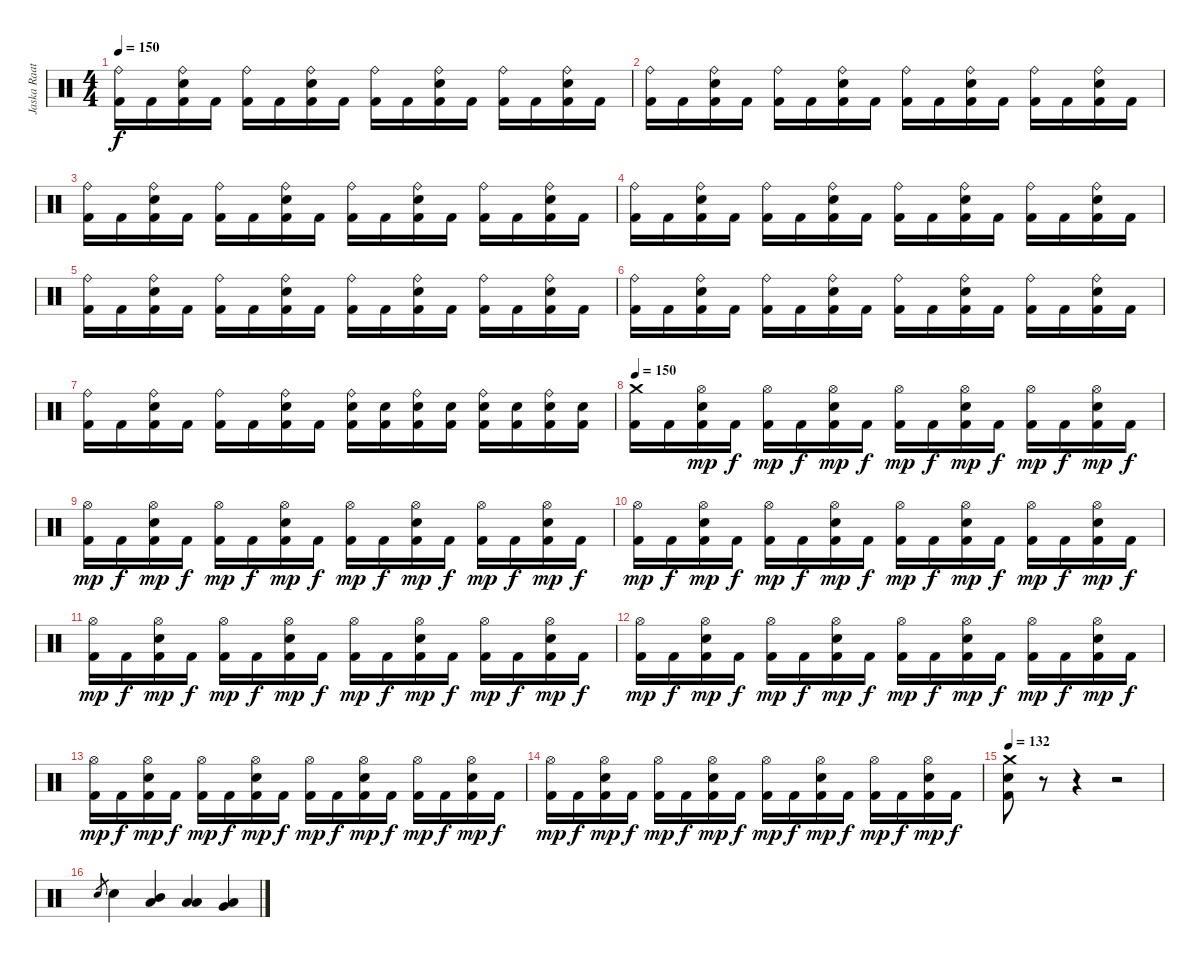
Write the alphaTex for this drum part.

\track ("Jaska Raatikainen" "Jaska Raat") {instrument percussion}
\staff {score}
\articulation defaults
\ts (4 4)
\tempo 150
\clef neutral
\ks c
("Ride (bell)" "Kick (hit) 2").16{dy f} "Kick (hit) 2".16 ("Ride (bell)" "Electric Snare (hit)" "Kick (hit) 2").16 "Kick (hit) 2".16 ("Ride (bell)" "Kick (hit) 2").16 "Kick (hit) 2".16 ("Ride (bell)" "Electric Snare (hit)" "Kick (hit) 2").16 "Kick (hit) 2".16 ("Ride (bell)" "Kick (hit) 2").16 "Kick (hit) 2".16 ("Ride (bell)" "Electric Snare (hit)" "Kick (hit) 2").16 "Kick (hit) 2".16 ("Ride (bell)" "Kick (hit) 2").16 "Kick (hit) 2".16 ("Ride (bell)" "Electric Snare (hit)" "Kick (hit) 2").16 "Kick (hit) 2".16 |
("Ride (bell)" "Kick (hit) 2").16 "Kick (hit) 2".16 ("Ride (bell)" "Electric Snare (hit)" "Kick (hit) 2").16 "Kick (hit) 2".16 ("Ride (bell)" "Kick (hit) 2").16 "Kick (hit) 2".16 ("Ride (bell)" "Electric Snare (hit)" "Kick (hit) 2").16 "Kick (hit) 2".16 ("Ride (bell)" "Kick (hit) 2").16 "Kick (hit) 2".16 ("Ride (bell)" "Electric Snare (hit)" "Kick (hit) 2").16 "Kick (hit) 2".16 ("Ride (bell)" "Kick (hit) 2").16 "Kick (hit) 2".16 ("Ride (bell)" "Electric Snare (hit)" "Kick (hit) 2").16 "Kick (hit) 2".16 |
("Ride (bell)" "Kick (hit) 2").16 "Kick (hit) 2".16 ("Ride (bell)" "Electric Snare (hit)" "Kick (hit) 2").16 "Kick (hit) 2".16 ("Ride (bell)" "Kick (hit) 2").16 "Kick (hit) 2".16 ("Ride (bell)" "Electric Snare (hit)" "Kick (hit) 2").16 "Kick (hit) 2".16 ("Ride (bell)" "Kick (hit) 2").16 "Kick (hit) 2".16 ("Ride (bell)" "Electric Snare (hit)" "Kick (hit) 2").16 "Kick (hit) 2".16 ("Ride (bell)" "Kick (hit) 2").16 "Kick (hit) 2".16 ("Ride (bell)" "Electric Snare (hit)" "Kick (hit) 2").16 "Kick (hit) 2".16 |
("Ride (bell)" "Kick (hit) 2").16 "Kick (hit) 2".16 ("Ride (bell)" "Electric Snare (hit)" "Kick (hit) 2").16 "Kick (hit) 2".16 ("Ride (bell)" "Kick (hit) 2").16 "Kick (hit) 2".16 ("Ride (bell)" "Electric Snare (hit)" "Kick (hit) 2").16 "Kick (hit) 2".16 ("Ride (bell)" "Kick (hit) 2").16 "Kick (hit) 2".16 ("Ride (bell)" "Electric Snare (hit)" "Kick (hit) 2").16 "Kick (hit) 2".16 ("Ride (bell)" "Kick (hit) 2").16 "Kick (hit) 2".16 ("Ride (bell)" "Electric Snare (hit)" "Kick (hit) 2").16 "Kick (hit) 2".16 |
("Ride (bell)" "Kick (hit) 2").16 "Kick (hit) 2".16 ("Ride (bell)" "Electric Snare (hit)" "Kick (hit) 2").16 "Kick (hit) 2".16 ("Ride (bell)" "Kick (hit) 2").16 "Kick (hit) 2".16 ("Ride (bell)" "Electric Snare (hit)" "Kick (hit) 2").16 "Kick (hit) 2".16 ("Ride (bell)" "Kick (hit) 2").16 "Kick (hit) 2".16 ("Ride (bell)" "Electric Snare (hit)" "Kick (hit) 2").16 "Kick (hit) 2".16 ("Ride (bell)" "Kick (hit) 2").16 "Kick (hit) 2".16 ("Ride (bell)" "Electric Snare (hit)" "Kick (hit) 2").16 "Kick (hit) 2".16 |
("Ride (bell)" "Kick (hit) 2").16 "Kick (hit) 2".16 ("Ride (bell)" "Electric Snare (hit)" "Kick (hit) 2").16 "Kick (hit) 2".16 ("Ride (bell)" "Kick (hit) 2").16 "Kick (hit) 2".16 ("Ride (bell)" "Electric Snare (hit)" "Kick (hit) 2").16 "Kick (hit) 2".16 ("Ride (bell)" "Kick (hit) 2").16 "Kick (hit) 2".16 ("Ride (bell)" "Electric Snare (hit)" "Kick (hit) 2").16 "Kick (hit) 2".16 ("Ride (bell)" "Kick (hit) 2").16 "Kick (hit) 2".16 ("Ride (bell)" "Electric Snare (hit)" "Kick (hit) 2").16 "Kick (hit) 2".16 |
("Ride (bell)" "Kick (hit) 2").16 "Kick (hit) 2".16 ("Ride (bell)" "Electric Snare (hit)" "Kick (hit) 2").16 "Kick (hit) 2".16 ("Ride (bell)" "Kick (hit) 2").16 "Kick (hit) 2".16 ("Ride (bell)" "Electric Snare (hit)" "Kick (hit) 2").16 "Kick (hit) 2".16 ("Ride (bell)" "Electric Snare (hit)" "Kick (hit) 2").16 ("Electric Snare (hit)" "Kick (hit) 2").16 ("Ride (bell)" "Electric Snare (hit)" "Kick (hit) 2").16 ("Electric Snare (hit)" "Kick (hit) 2").16 ("Ride (bell)" "Electric Snare (hit)" "Kick (hit) 2").16 ("Electric Snare (hit)" "Kick (hit) 2").16 ("Ride (bell)" "Electric Snare (hit)" "Kick (hit) 2").16 ("Electric Snare (hit)" "Kick (hit) 2").16 |
\tempo 150
("Crash medium (hit)" "Kick (hit) 2").16 "Kick (hit) 2".16 ("Hi-Hat (open)" "Electric Snare (hit)" "Kick (hit) 2").16{dy mp} "Kick (hit) 2".16{dy f} ("Hi-Hat (open)" "Kick (hit) 2").16{dy mp} "Kick (hit) 2".16{dy f} ("Hi-Hat (open)" "Electric Snare (hit)" "Kick (hit) 2").16{dy mp} "Kick (hit) 2".16{dy f} ("Hi-Hat (open)" "Kick (hit) 2").16{dy mp} "Kick (hit) 2".16{dy f} ("Hi-Hat (open)" "Electric Snare (hit)" "Kick (hit) 2").16{dy mp} "Kick (hit) 2".16{dy f} ("Hi-Hat (open)" "Kick (hit) 2").16{dy mp} "Kick (hit) 2".16{dy f} ("Hi-Hat (open)" "Electric Snare (hit)" "Kick (hit) 2").16{dy mp} "Kick (hit) 2".16{dy f} |
("Hi-Hat (open)" "Kick (hit) 2").16{dy mp} "Kick (hit) 2".16{dy f} ("Hi-Hat (open)" "Electric Snare (hit)" "Kick (hit) 2").16{dy mp} "Kick (hit) 2".16{dy f} ("Hi-Hat (open)" "Kick (hit) 2").16{dy mp} "Kick (hit) 2".16{dy f} ("Hi-Hat (open)" "Electric Snare (hit)" "Kick (hit) 2").16{dy mp} "Kick (hit) 2".16{dy f} ("Hi-Hat (open)" "Kick (hit) 2").16{dy mp} "Kick (hit) 2".16{dy f} ("Hi-Hat (open)" "Electric Snare (hit)" "Kick (hit) 2").16{dy mp} "Kick (hit) 2".16{dy f} ("Hi-Hat (open)" "Kick (hit) 2").16{dy mp} "Kick (hit) 2".16{dy f} ("Hi-Hat (open)" "Electric Snare (hit)" "Kick (hit) 2").16{dy mp} "Kick (hit) 2".16{dy f} |
("Hi-Hat (open)" "Kick (hit) 2").16{dy mp} "Kick (hit) 2".16{dy f} ("Hi-Hat (open)" "Electric Snare (hit)" "Kick (hit) 2").16{dy mp} "Kick (hit) 2".16{dy f} ("Hi-Hat (open)" "Kick (hit) 2").16{dy mp} "Kick (hit) 2".16{dy f} ("Hi-Hat (open)" "Electric Snare (hit)" "Kick (hit) 2").16{dy mp} "Kick (hit) 2".16{dy f} ("Hi-Hat (open)" "Kick (hit) 2").16{dy mp} "Kick (hit) 2".16{dy f} ("Hi-Hat (open)" "Electric Snare (hit)" "Kick (hit) 2").16{dy mp} "Kick (hit) 2".16{dy f} ("Hi-Hat (open)" "Kick (hit) 2").16{dy mp} "Kick (hit) 2".16{dy f} ("Hi-Hat (open)" "Electric Snare (hit)" "Kick (hit) 2").16{dy mp} "Kick (hit) 2".16{dy f} |
("Hi-Hat (open)" "Kick (hit) 2").16{dy mp} "Kick (hit) 2".16{dy f} ("Hi-Hat (open)" "Electric Snare (hit)" "Kick (hit) 2").16{dy mp} "Kick (hit) 2".16{dy f} ("Hi-Hat (open)" "Kick (hit) 2").16{dy mp} "Kick (hit) 2".16{dy f} ("Hi-Hat (open)" "Electric Snare (hit)" "Kick (hit) 2").16{dy mp} "Kick (hit) 2".16{dy f} ("Hi-Hat (open)" "Kick (hit) 2").16{dy mp} "Kick (hit) 2".16{dy f} ("Hi-Hat (open)" "Electric Snare (hit)" "Kick (hit) 2").16{dy mp} "Kick (hit) 2".16{dy f} ("Hi-Hat (open)" "Kick (hit) 2").16{dy mp} "Kick (hit) 2".16{dy f} ("Hi-Hat (open)" "Electric Snare (hit)" "Kick (hit) 2").16{dy mp} "Kick (hit) 2".16{dy f} |
("Hi-Hat (open)" "Kick (hit) 2").16{dy mp} "Kick (hit) 2".16{dy f} ("Hi-Hat (open)" "Electric Snare (hit)" "Kick (hit) 2").16{dy mp} "Kick (hit) 2".16{dy f} ("Hi-Hat (open)" "Kick (hit) 2").16{dy mp} "Kick (hit) 2".16{dy f} ("Hi-Hat (open)" "Electric Snare (hit)" "Kick (hit) 2").16{dy mp} "Kick (hit) 2".16{dy f} ("Hi-Hat (open)" "Kick (hit) 2").16{dy mp} "Kick (hit) 2".16{dy f} ("Hi-Hat (open)" "Electric Snare (hit)" "Kick (hit) 2").16{dy mp} "Kick (hit) 2".16{dy f} ("Hi-Hat (open)" "Kick (hit) 2").16{dy mp} "Kick (hit) 2".16{dy f} ("Hi-Hat (open)" "Electric Snare (hit)" "Kick (hit) 2").16{dy mp} "Kick (hit) 2".16{dy f} |
("Hi-Hat (open)" "Kick (hit) 2").16{dy mp} "Kick (hit) 2".16{dy f} ("Hi-Hat (open)" "Electric Snare (hit)" "Kick (hit) 2").16{dy mp} "Kick (hit) 2".16{dy f} ("Hi-Hat (open)" "Kick (hit) 2").16{dy mp} "Kick (hit) 2".16{dy f} ("Hi-Hat (open)" "Electric Snare (hit)" "Kick (hit) 2").16{dy mp} "Kick (hit) 2".16{dy f} ("Hi-Hat (open)" "Kick (hit) 2").16{dy mp} "Kick (hit) 2".16{dy f} ("Hi-Hat (open)" "Electric Snare (hit)" "Kick (hit) 2").16{dy mp} "Kick (hit) 2".16{dy f} ("Hi-Hat (open)" "Kick (hit) 2").16{dy mp} "Kick (hit) 2".16{dy f} ("Hi-Hat (open)" "Electric Snare (hit)" "Kick (hit) 2").16{dy mp} "Kick (hit) 2".16{dy f} |
("Hi-Hat (open)" "Kick (hit) 2").16{dy mp} "Kick (hit) 2".16{dy f} ("Hi-Hat (open)" "Electric Snare (hit)" "Kick (hit) 2").16{dy mp} "Kick (hit) 2".16{dy f} ("Hi-Hat (open)" "Kick (hit) 2").16{dy mp} "Kick (hit) 2".16{dy f} ("Hi-Hat (open)" "Electric Snare (hit)" "Kick (hit) 2").16{dy mp} "Kick (hit) 2".16{dy f} ("Hi-Hat (open)" "Kick (hit) 2").16{dy mp} "Kick (hit) 2".16{dy f} ("Hi-Hat (open)" "Electric Snare (hit)" "Kick (hit) 2").16{dy mp} "Kick (hit) 2".16{dy f} ("Hi-Hat (open)" "Kick (hit) 2").16{dy mp} "Kick (hit) 2".16{dy f} ("Hi-Hat (open)" "Electric Snare (hit)" "Kick (hit) 2").16{dy mp} "Kick (hit) 2".16{dy f} |
\tempo 140
\tempo 132
("Crash medium (hit)" "Electric Snare (hit)" "Kick (hit) 2").8 r.8 r.4 r.2 |
"Electric Snare (hit)".8{gr} "Electric Snare (hit)".4 ("Mid Tom (hit)" "Low Tom (hit)").4 ("Low Tom (hit)" "Low Tom (hit)").4 ("Low Tom (hit)" "Very Low Tom (hit)").4
